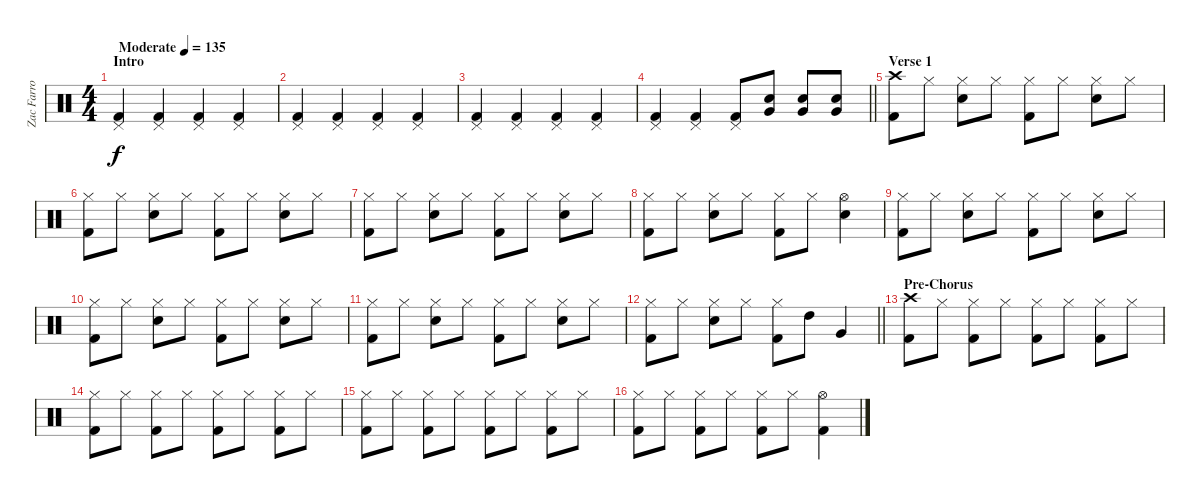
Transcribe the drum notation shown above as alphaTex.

\track ("Zac Farro (Percussion)" "Zac Farro ") {instrument percussion}
\staff {score}
\articulation defaults
\ts (4 4)
\section ("" "Intro")
\tempo (135 "Moderate")
\clef neutral
\ks c
("Pedal Hi-Hat (hit)" "Kick (hit) 2").4{dy f} ("Pedal Hi-Hat (hit)" "Kick (hit) 2").4 ("Pedal Hi-Hat (hit)" "Kick (hit) 2").4 ("Pedal Hi-Hat (hit)" "Kick (hit) 2").4 |
("Pedal Hi-Hat (hit)" "Kick (hit) 2").4 ("Pedal Hi-Hat (hit)" "Kick (hit) 2").4 ("Pedal Hi-Hat (hit)" "Kick (hit) 2").4 ("Pedal Hi-Hat (hit)" "Kick (hit) 2").4 |
("Pedal Hi-Hat (hit)" "Kick (hit) 2").4 ("Pedal Hi-Hat (hit)" "Kick (hit) 2").4 ("Pedal Hi-Hat (hit)" "Kick (hit) 2").4 ("Pedal Hi-Hat (hit)" "Kick (hit) 2").4 |
\barLineRight lightlight
("Pedal Hi-Hat (hit)" "Kick (hit) 2").4 ("Pedal Hi-Hat (hit)" "Kick (hit) 2").4 ("Pedal Hi-Hat (hit)" "Kick (hit) 2").8 ("Very Low Tom (hit)" "Snare (hit) 2").8 ("Very Low Tom (hit)" "Snare (hit) 2").8 ("Very Low Tom (hit)" "Snare (hit) 2").8 |
\section ("" "Verse 1")
("Crash high (hit)" "Kick (hit) 2").8 "Hi-Hat (closed)".8 ("Hi-Hat (closed)" "Snare (hit) 2").8 "Hi-Hat (closed)".8 ("Hi-Hat (closed)" "Kick (hit) 2").8 "Hi-Hat (closed)".8 ("Hi-Hat (closed)" "Snare (hit) 2").8 "Hi-Hat (closed)".8 |
("Hi-Hat (closed)" "Kick (hit) 2").8 "Hi-Hat (closed)".8 ("Hi-Hat (closed)" "Snare (hit) 2").8 "Hi-Hat (closed)".8 ("Hi-Hat (closed)" "Kick (hit) 2").8 "Hi-Hat (closed)".8 ("Hi-Hat (closed)" "Snare (hit) 2").8 "Hi-Hat (closed)".8 |
("Hi-Hat (closed)" "Kick (hit) 2").8 "Hi-Hat (closed)".8 ("Hi-Hat (closed)" "Snare (hit) 2").8 "Hi-Hat (closed)".8 ("Hi-Hat (closed)" "Kick (hit) 2").8 "Hi-Hat (closed)".8 ("Hi-Hat (closed)" "Snare (hit) 2").8 "Hi-Hat (closed)".8 |
("Hi-Hat (closed)" "Kick (hit) 2").8 "Hi-Hat (closed)".8 ("Hi-Hat (closed)" "Snare (hit) 2").8 "Hi-Hat (closed)".8 ("Hi-Hat (closed)" "Kick (hit) 2").8 "Hi-Hat (closed)".8 ("Hi-Hat (open)" "Snare (hit) 2").4 |
("Hi-Hat (closed)" "Kick (hit) 2").8 "Hi-Hat (closed)".8 ("Hi-Hat (closed)" "Snare (hit) 2").8 "Hi-Hat (closed)".8 ("Hi-Hat (closed)" "Kick (hit) 2").8 "Hi-Hat (closed)".8 ("Hi-Hat (closed)" "Snare (hit) 2").8 "Hi-Hat (closed)".8 |
("Hi-Hat (closed)" "Kick (hit) 2").8 "Hi-Hat (closed)".8 ("Hi-Hat (closed)" "Snare (hit) 2").8 "Hi-Hat (closed)".8 ("Hi-Hat (closed)" "Kick (hit) 2").8 "Hi-Hat (closed)".8 ("Hi-Hat (closed)" "Snare (hit) 2").8 "Hi-Hat (closed)".8 |
("Hi-Hat (closed)" "Kick (hit) 2").8 "Hi-Hat (closed)".8 ("Hi-Hat (closed)" "Snare (hit) 2").8 "Hi-Hat (closed)".8 ("Hi-Hat (closed)" "Kick (hit) 2").8 "Hi-Hat (closed)".8 ("Hi-Hat (closed)" "Snare (hit) 2").8 "Hi-Hat (closed)".8 |
\barLineRight lightlight
("Hi-Hat (closed)" "Kick (hit) 2").8 "Hi-Hat (closed)".8 ("Hi-Hat (closed)" "Snare (hit) 2").8 "Hi-Hat (closed)".8 ("Hi-Hat (closed)" "Kick (hit) 2").8 "High Tom (hit)".8 "Very Low Tom (hit)".4 |
\section ("" "Pre-Chorus")
("Crash high (hit)" "Kick (hit) 2").8 "Hi-Hat (closed)".8 ("Hi-Hat (closed)" "Kick (hit) 2").8 "Hi-Hat (closed)".8 ("Hi-Hat (closed)" "Kick (hit) 2").8 "Hi-Hat (closed)".8 ("Hi-Hat (closed)" "Kick (hit) 2").8 "Hi-Hat (closed)".8 |
("Hi-Hat (closed)" "Kick (hit) 2").8 "Hi-Hat (closed)".8 ("Hi-Hat (closed)" "Kick (hit) 2").8 "Hi-Hat (closed)".8 ("Hi-Hat (closed)" "Kick (hit) 2").8 "Hi-Hat (closed)".8 ("Hi-Hat (closed)" "Kick (hit) 2").8 "Hi-Hat (closed)".8 |
("Hi-Hat (closed)" "Kick (hit) 2").8 "Hi-Hat (closed)".8 ("Hi-Hat (closed)" "Kick (hit) 2").8 "Hi-Hat (closed)".8 ("Hi-Hat (closed)" "Kick (hit) 2").8 "Hi-Hat (closed)".8 ("Hi-Hat (closed)" "Kick (hit) 2").8 "Hi-Hat (closed)".8 |
("Hi-Hat (closed)" "Kick (hit) 2").8 "Hi-Hat (closed)".8 ("Hi-Hat (closed)" "Kick (hit) 2").8 "Hi-Hat (closed)".8 ("Hi-Hat (closed)" "Kick (hit) 2").8 "Hi-Hat (closed)".8 ("Hi-Hat (open)" "Kick (hit) 2").4
